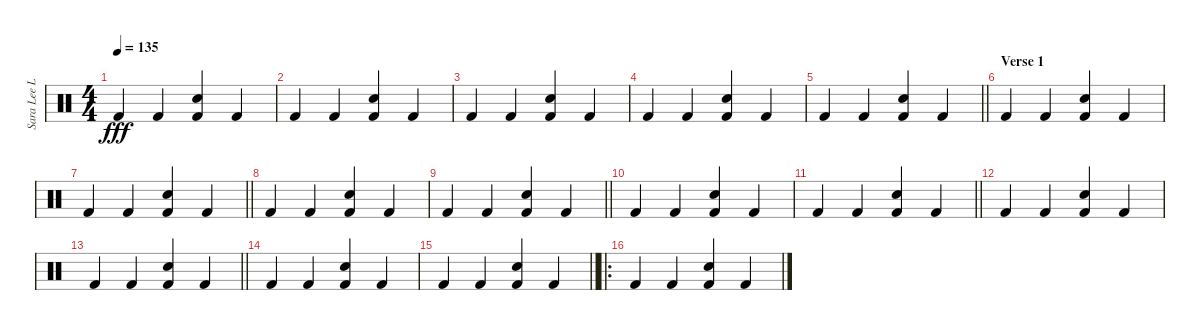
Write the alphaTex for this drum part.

\track ("Sara Lee Lucas" "Sara Lee L") {instrument percussion}
\staff {score}
\articulation defaults
\ts (4 4)
\tempo 135
\clef neutral
\ks c "Kick (hit) 2".4{dy fff} "Kick (hit) 2".4
("Snare (hit) 2" "Kick (hit) 2").4 "Kick (hit) 2".4 |
"Kick (hit) 2".4 "Kick (hit) 2".4 ("Snare (hit) 2" "Kick (hit) 2").4 "Kick (hit) 2".4 |
"Kick (hit) 2".4 "Kick (hit) 2".4 ("Snare (hit) 2" "Kick (hit) 2").4 "Kick (hit) 2".4 |
"Kick (hit) 2".4 "Kick (hit) 2".4 ("Snare (hit) 2" "Kick (hit) 2").4 "Kick (hit) 2".4 |
\barLineRight lightlight "Kick (hit) 2".4 "Kick (hit) 2".4
("Snare (hit) 2" "Kick (hit) 2").4 "Kick (hit) 2".4 |
\section ("" "Verse 1")
"Kick (hit) 2".4 "Kick (hit) 2".4 ("Snare (hit) 2" "Kick (hit) 2").4 "Kick (hit) 2".4 |
\barLineRight lightlight "Kick (hit) 2".4 "Kick (hit) 2".4
("Snare (hit) 2" "Kick (hit) 2").4 "Kick (hit) 2".4 |
"Kick (hit) 2".4 "Kick (hit) 2".4 ("Snare (hit) 2" "Kick (hit) 2").4 "Kick (hit) 2".4 |
\barLineRight lightlight "Kick (hit) 2".4 "Kick (hit) 2".4
("Snare (hit) 2" "Kick (hit) 2").4 "Kick (hit) 2".4 |
"Kick (hit) 2".4 "Kick (hit) 2".4 ("Snare (hit) 2" "Kick (hit) 2").4 "Kick (hit) 2".4 |
\barLineRight lightlight "Kick (hit) 2".4 "Kick (hit) 2".4
("Snare (hit) 2" "Kick (hit) 2").4 "Kick (hit) 2".4 |
"Kick (hit) 2".4 "Kick (hit) 2".4 ("Snare (hit) 2" "Kick (hit) 2").4 "Kick (hit) 2".4 |
\barLineRight lightlight "Kick (hit) 2".4 "Kick (hit) 2".4
("Snare (hit) 2" "Kick (hit) 2").4 "Kick (hit) 2".4 |
"Kick (hit) 2".4 "Kick (hit) 2".4 ("Snare (hit) 2" "Kick (hit) 2").4 "Kick (hit) 2".4 |
\barLineRight lightlight "Kick (hit) 2".4 "Kick (hit) 2".4
("Snare (hit) 2" "Kick (hit) 2").4 "Kick (hit) 2".4 |
\ro "Kick (hit) 2".4 "Kick (hit) 2".4
("Snare (hit) 2" "Kick (hit) 2").4 "Kick (hit) 2".4
